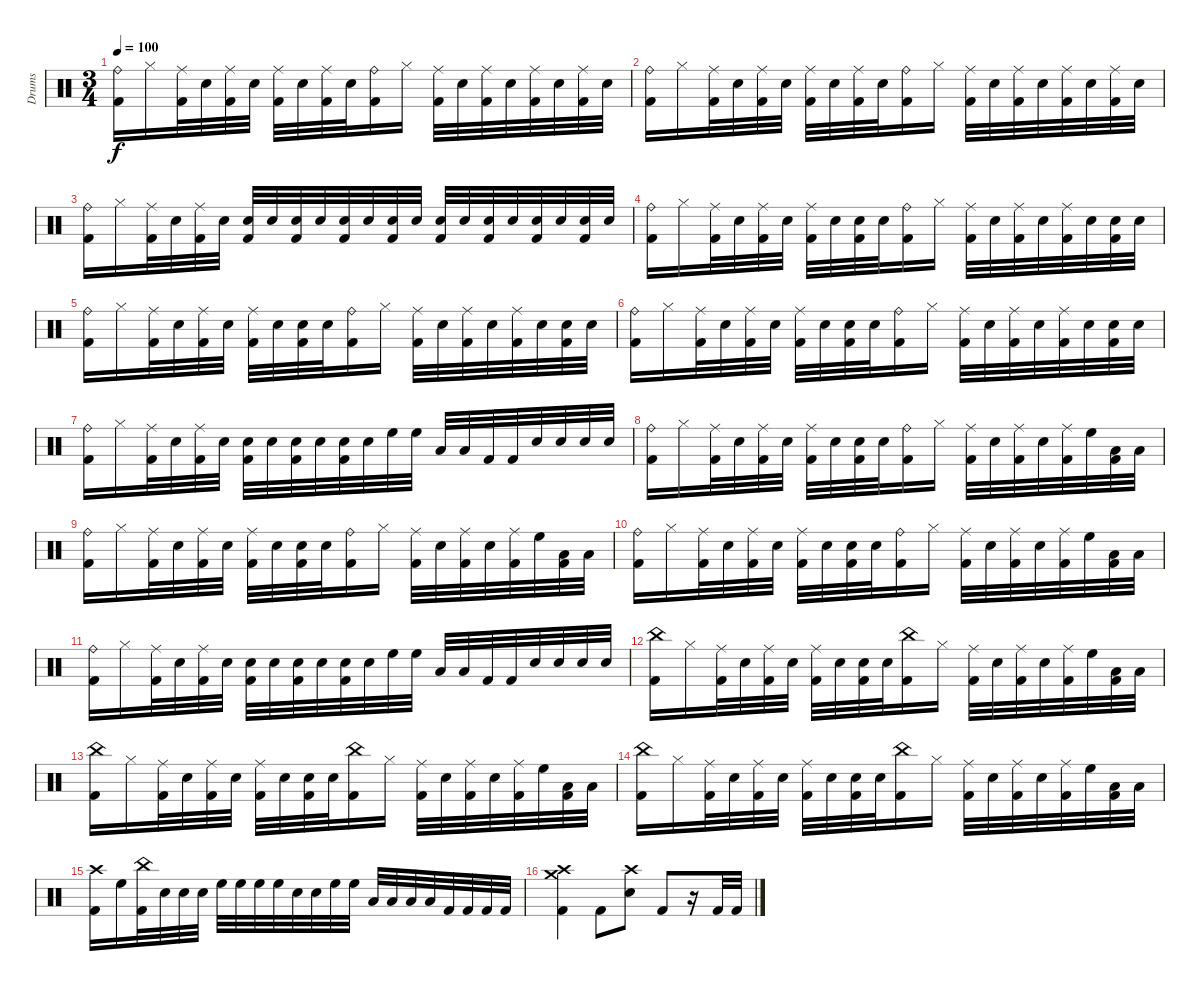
\track ("Drums" "Drums") {instrument percussion}
\staff {score}
\articulation defaults
\ts (3 4)
\tempo 100
\clef neutral
\ks c
("Ride (bell)" "Kick (hit) 2").16{dy f} "Hi-Hat (closed)".16{volume 5} ("Ride (middle)" "Kick (hit) 2").32{volume 16} "Electric Snare (hit)".32 ("Kick (hit) 2" "Ride (middle)").32 "Electric Snare (hit)".32 ("Kick (hit) 2" "Ride (middle)").32 "Electric Snare (hit)".32 ("Kick (hit) 2" "Ride (middle)").32 "Electric Snare (hit)".32 ("Kick (hit) 2" "Ride (bell)").16 "Hi-Hat (closed)".16{volume 5} ("Ride (middle)" "Kick (hit) 2").32{volume 16} "Electric Snare (hit)".32 ("Kick (hit) 2" "Ride (middle)").32 "Electric Snare (hit)".32 ("Kick (hit) 2" "Ride (middle)").32 "Electric Snare (hit)".32 ("Kick (hit) 2" "Ride (middle)").32 "Electric Snare (hit)".32 |
("Ride (bell)" "Kick (hit) 2").16 "Hi-Hat (closed)".16{volume 5} ("Ride (middle)" "Kick (hit) 2").32{volume 16} "Electric Snare (hit)".32 ("Kick (hit) 2" "Ride (middle)").32 "Electric Snare (hit)".32 ("Kick (hit) 2" "Ride (middle)").32 "Electric Snare (hit)".32 ("Kick (hit) 2" "Ride (middle)").32 "Electric Snare (hit)".32 ("Kick (hit) 2" "Ride (bell)").16 "Hi-Hat (closed)".16{volume 5} ("Ride (middle)" "Kick (hit) 2").32{volume 16} "Electric Snare (hit)".32 ("Kick (hit) 2" "Ride (middle)").32 "Electric Snare (hit)".32 ("Kick (hit) 2" "Ride (middle)").32 "Electric Snare (hit)".32 ("Kick (hit) 2" "Ride (middle)").32 "Electric Snare (hit)".32 |
("Ride (bell)" "Kick (hit) 2").16 "Hi-Hat (closed)".16{volume 5} ("Ride (middle)" "Kick (hit) 2").32 "Electric Snare (hit)".32 ("Kick (hit) 2" "Ride (middle)").32 "Electric Snare (hit)".32 ("Kick (hit) 2" "Electric Snare (hit)").32{volume 16} "Electric Snare (hit)".32 ("Kick (hit) 2" "Electric Snare (hit)").32 "Electric Snare (hit)".32 ("Electric Snare (hit)" "Kick (hit) 2").32 "Electric Snare (hit)".32 ("Kick (hit) 2" "Electric Snare (hit)").32 "Electric Snare (hit)".32 ("Kick (hit) 2" "Electric Snare (hit)").32 "Electric Snare (hit)".32 ("Kick (hit) 2" "Electric Snare (hit)").32 "Electric Snare (hit)".32 ("Kick (hit) 2" "Electric Snare (hit)").32 "Electric Snare (hit)".32 ("Kick (hit) 2" "Electric Snare (hit)").32 "Electric Snare (hit)".32 |
("Ride (bell)" "Kick (hit) 2").16 "Hi-Hat (closed)".16{volume 5} ("Ride (middle)" "Kick (hit) 2").32{volume 16} "Electric Snare (hit)".32 ("Kick (hit) 2" "Ride (middle)").32 "Electric Snare (hit)".32 ("Kick (hit) 2" "Ride (middle)").32 "Electric Snare (hit)".32 ("Kick (hit) 2" "Electric Snare (hit)").32 "Electric Snare (hit)".32 ("Kick (hit) 2" "Ride (bell)").16 "Hi-Hat (closed)".16{volume 5} ("Ride (middle)" "Kick (hit) 2").32{volume 16} "Electric Snare (hit)".32 ("Kick (hit) 2" "Ride (middle)").32 "Electric Snare (hit)".32 ("Kick (hit) 2" "Ride (middle)").32 "Electric Snare (hit)".32 ("Kick (hit) 2" "Electric Snare (hit)").32 "Electric Snare (hit)".32 |
("Ride (bell)" "Kick (hit) 2").16 "Hi-Hat (closed)".16{volume 5} ("Ride (middle)" "Kick (hit) 2").32{volume 16} "Electric Snare (hit)".32 ("Kick (hit) 2" "Ride (middle)").32 "Electric Snare (hit)".32 ("Kick (hit) 2" "Ride (middle)").32 "Electric Snare (hit)".32 ("Kick (hit) 2" "Electric Snare (hit)").32 "Electric Snare (hit)".32 ("Kick (hit) 2" "Ride (bell)").16 "Hi-Hat (closed)".16{volume 5} ("Ride (middle)" "Kick (hit) 2").32{volume 16} "Electric Snare (hit)".32 ("Kick (hit) 2" "Ride (middle)").32 "Electric Snare (hit)".32 ("Kick (hit) 2" "Ride (middle)").32 "Electric Snare (hit)".32 ("Kick (hit) 2" "Electric Snare (hit)").32 "Electric Snare (hit)".32 |
("Ride (bell)" "Kick (hit) 2").16 "Hi-Hat (closed)".16{volume 5} ("Ride (middle)" "Kick (hit) 2").32{volume 16} "Electric Snare (hit)".32 ("Kick (hit) 2" "Ride (middle)").32 "Electric Snare (hit)".32 ("Kick (hit) 2" "Ride (middle)").32 "Electric Snare (hit)".32 ("Kick (hit) 2" "Electric Snare (hit)").32 "Electric Snare (hit)".32 ("Kick (hit) 2" "Ride (bell)").16 "Hi-Hat (closed)".16{volume 5} ("Ride (middle)" "Kick (hit) 2").32{volume 16} "Electric Snare (hit)".32 ("Kick (hit) 2" "Ride (middle)").32 "Electric Snare (hit)".32 ("Kick (hit) 2" "Ride (middle)").32 "Electric Snare (hit)".32 ("Kick (hit) 2" "Electric Snare (hit)").32 "Electric Snare (hit)".32 |
("Ride (bell)" "Kick (hit) 2").16 "Hi-Hat (closed)".16{volume 5} ("Ride (middle)" "Kick (hit) 2").32 "Electric Snare (hit)".32 ("Kick (hit) 2" "Ride (middle)").32 "Electric Snare (hit)".32 ("Kick (hit) 2" "Electric Snare (hit)").32{volume 16} "Electric Snare (hit)".32 ("Kick (hit) 2" "Electric Snare (hit)").32 "Electric Snare (hit)".32 ("Electric Snare (hit)" "Kick (hit) 2").32 "Electric Snare (hit)".32 "High Floor Tom (hit)".32 "High Floor Tom (hit)".32 "Low Tom (hit)".32 "Low Tom (hit)".32 "Kick (hit) 2".32 "Kick (hit) 2".32 "Electric Snare (hit)".32 "Electric Snare (hit)".32 "Electric Snare (hit)".32 "Electric Snare (hit)".32 |
("Ride (bell)" "Kick (hit) 2").16 "Hi-Hat (closed)".16{volume 5} ("Ride (middle)" "Kick (hit) 2").32{volume 16} "Electric Snare (hit)".32 ("Kick (hit) 2" "Ride (middle)").32 "Electric Snare (hit)".32 ("Kick (hit) 2" "Ride (middle)").32 "Electric Snare (hit)".32 ("Kick (hit) 2" "Electric Snare (hit)").32 "Electric Snare (hit)".32 ("Kick (hit) 2" "Ride (bell)").16 "Hi-Hat (closed)".16{volume 5} ("Ride (middle)" "Kick (hit) 2").32{volume 16} "Electric Snare (hit)".32 ("Kick (hit) 2" "Ride (middle)").32 "Electric Snare (hit)".32 ("Kick (hit) 2" "Ride (middle)").32 "High Floor Tom (hit)".32 ("Kick (hit) 2" "Low Tom (hit)").32 "Low Tom (hit)".32 |
("Ride (bell)" "Kick (hit) 2").16 "Hi-Hat (closed)".16{volume 5} ("Ride (middle)" "Kick (hit) 2").32{volume 16} "Electric Snare (hit)".32 ("Kick (hit) 2" "Ride (middle)").32 "Electric Snare (hit)".32 ("Kick (hit) 2" "Ride (middle)").32 "Electric Snare (hit)".32 ("Kick (hit) 2" "Electric Snare (hit)").32 "Electric Snare (hit)".32 ("Kick (hit) 2" "Ride (bell)").16 "Hi-Hat (closed)".16{volume 5} ("Ride (middle)" "Kick (hit) 2").32{volume 16} "Electric Snare (hit)".32 ("Kick (hit) 2" "Ride (middle)").32 "Electric Snare (hit)".32 ("Kick (hit) 2" "Ride (middle)").32 "High Floor Tom (hit)".32 ("Kick (hit) 2" "Low Tom (hit)").32 "Low Tom (hit)".32 |
("Ride (bell)" "Kick (hit) 2").16 "Hi-Hat (closed)".16{volume 5} ("Ride (middle)" "Kick (hit) 2").32{volume 16} "Electric Snare (hit)".32 ("Kick (hit) 2" "Ride (middle)").32 "Electric Snare (hit)".32 ("Kick (hit) 2" "Ride (middle)").32 "Electric Snare (hit)".32 ("Kick (hit) 2" "Electric Snare (hit)").32 "Electric Snare (hit)".32 ("Kick (hit) 2" "Ride (bell)").16 "Hi-Hat (closed)".16{volume 5} ("Ride (middle)" "Kick (hit) 2").32{volume 16} "Electric Snare (hit)".32 ("Kick (hit) 2" "Ride (middle)").32 "Electric Snare (hit)".32 ("Kick (hit) 2" "Ride (middle)").32 "High Floor Tom (hit)".32 ("Kick (hit) 2" "Low Tom (hit)").32 "Low Tom (hit)".32 |
("Ride (bell)" "Kick (hit) 2").16 "Hi-Hat (closed)".16{volume 5} ("Ride (middle)" "Kick (hit) 2").32 "Electric Snare (hit)".32 ("Kick (hit) 2" "Ride (middle)").32 "Electric Snare (hit)".32 ("Kick (hit) 2" "Electric Snare (hit)").32{volume 16} "Electric Snare (hit)".32 ("Kick (hit) 2" "Electric Snare (hit)").32 "Electric Snare (hit)".32 ("Electric Snare (hit)" "Kick (hit) 2").32 "Electric Snare (hit)".32 "High Floor Tom (hit)".32 "High Floor Tom (hit)".32 "Low Tom (hit)".32 "Low Tom (hit)".32 "Kick (hit) 2".32 "Kick (hit) 2".32 "Electric Snare (hit)".32 "Electric Snare (hit)".32 "Electric Snare (hit)".32 "Electric Snare (hit)".32 |
("China (hit)" "Kick (hit) 2").16 "Hi-Hat (closed)".16{volume 5} ("Ride (middle)" "Kick (hit) 2").32{volume 16} "Electric Snare (hit)".32 ("Kick (hit) 2" "Ride (middle)").32 "Electric Snare (hit)".32 ("Kick (hit) 2" "Ride (middle)").32 "Electric Snare (hit)".32 ("Kick (hit) 2" "Electric Snare (hit)").32 "Electric Snare (hit)".32 ("Kick (hit) 2" "China (hit)").16 "Hi-Hat (closed)".16{volume 5} ("Ride (middle)" "Kick (hit) 2").32{volume 16} "Electric Snare (hit)".32 ("Kick (hit) 2" "Ride (middle)").32 "Electric Snare (hit)".32 ("Kick (hit) 2" "Ride (middle)").32 "High Floor Tom (hit)".32 ("Kick (hit) 2" "Low Tom (hit)").32 "Low Tom (hit)".32 |
("China (hit)" "Kick (hit) 2").16 "Hi-Hat (closed)".16{volume 5} ("Ride (middle)" "Kick (hit) 2").32{volume 16} "Electric Snare (hit)".32 ("Kick (hit) 2" "Ride (middle)").32 "Electric Snare (hit)".32 ("Kick (hit) 2" "Ride (middle)").32 "Electric Snare (hit)".32 ("Kick (hit) 2" "Electric Snare (hit)").32 "Electric Snare (hit)".32 ("Kick (hit) 2" "China (hit)").16 "Hi-Hat (closed)".16{volume 5} ("Ride (middle)" "Kick (hit) 2").32{volume 16} "Electric Snare (hit)".32 ("Kick (hit) 2" "Ride (middle)").32 "Electric Snare (hit)".32 ("Kick (hit) 2" "Ride (middle)").32 "High Floor Tom (hit)".32 ("Kick (hit) 2" "Low Tom (hit)").32 "Low Tom (hit)".32 |
("China (hit)" "Kick (hit) 2").16 "Hi-Hat (closed)".16{volume 5} ("Ride (middle)" "Kick (hit) 2").32{volume 16} "Electric Snare (hit)".32 ("Kick (hit) 2" "Ride (middle)").32 "Electric Snare (hit)".32 ("Kick (hit) 2" "Ride (middle)").32 "Electric Snare (hit)".32 ("Kick (hit) 2" "Electric Snare (hit)").32 "Electric Snare (hit)".32 ("Kick (hit) 2" "China (hit)").16 "Hi-Hat (closed)".16{volume 5} ("Ride (middle)" "Kick (hit) 2").32{volume 16} "Electric Snare (hit)".32 ("Kick (hit) 2" "Ride (middle)").32 "Electric Snare (hit)".32 ("Kick (hit) 2" "Ride (middle)").32 "High Floor Tom (hit)".32 ("Kick (hit) 2" "Low Tom (hit)").32 "Low Tom (hit)".32 |
("Crash high (hit)" "Kick (hit) 2").16 "High Floor Tom (hit)".16{volume 5} ("China (hit)" "Kick (hit) 2").32{volume 16} "Electric Snare (hit)".32 "Electric Snare (hit)".32 "Electric Snare (hit)".32 "High Floor Tom (hit)".32 "High Floor Tom (hit)".32 "High Floor Tom (hit)".32 "High Floor Tom (hit)".32 "Electric Snare (hit)".32 "Electric Snare (hit)".32 "High Floor Tom (hit)".32 "High Floor Tom (hit)".32 "Low Tom (hit)".32 "Low Tom (hit)".32 "Low Tom (hit)".32 "Low Tom (hit)".32 "Kick (hit) 2".32 "Kick (hit) 2".32 "Kick (hit) 2".32 "Kick (hit) 2".32 |
("Kick (hit) 2" "Crash high (hit)" "Crash medium (hit)").4 "Kick (hit) 2".8 ("Electric Snare (hit)" "Crash high (hit)").8 "Kick (hit) 2".8 r.16 "Kick (hit) 2".32 "Kick (hit) 2".32
